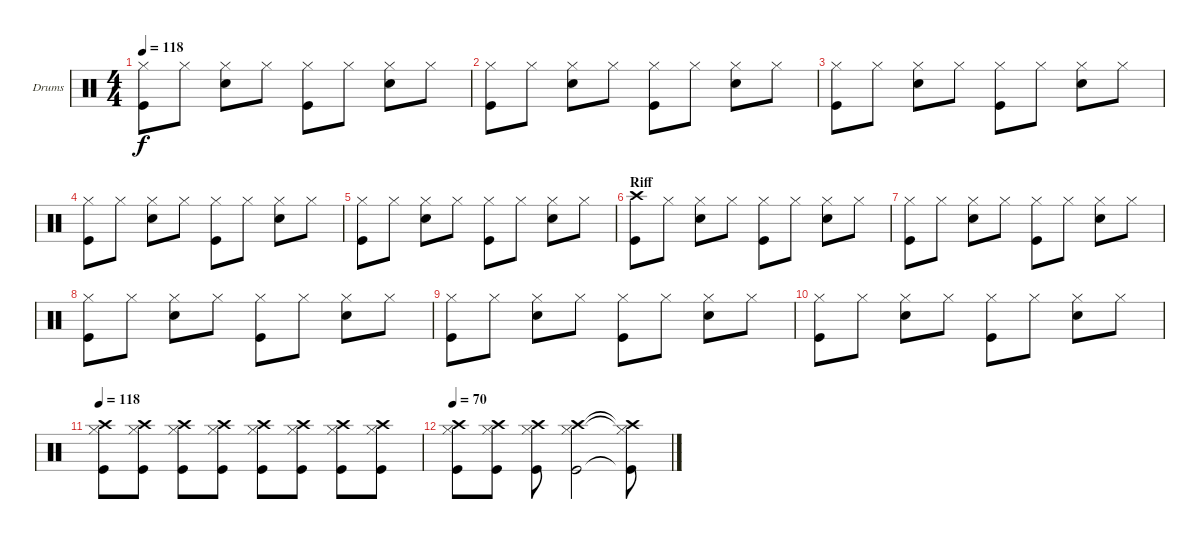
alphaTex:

\bracketExtendMode groupsimilarinstruments
\firstSystemTrackNameOrientation horizontal
\otherSystemsTrackNameOrientation horizontal
\track ("Drumkit" "Drums") {instrument percussion}
\staff {score}
\articulation defaults
\ts (4 4)
\tempo 118
\clef neutral
\scale
0.333333
\ks c
("Hi-Hat (closed)" "Kick (hit)").8{dy f} "Hi-Hat (closed)".8 ("Hi-Hat (closed)" "Snare (hit) 2").8 "Hi-Hat (closed)".8 ("Hi-Hat (closed)" "Kick (hit)").8 "Hi-Hat (closed)".8 ("Hi-Hat (closed)" "Snare (hit) 2").8 "Hi-Hat (closed)".8 |
\scale
0.333333 ("Hi-Hat (closed)" "Kick (hit)").8 "Hi-Hat (closed)".8 ("Hi-Hat (closed)" "Snare (hit) 2").8 "Hi-Hat (closed)".8 ("Hi-Hat (closed)" "Kick (hit)").8 "Hi-Hat (closed)".8 ("Hi-Hat (closed)" "Snare (hit) 2").8 "Hi-Hat (closed)".8 |
\scale
0.333333 ("Hi-Hat (closed)" "Kick (hit)").8 "Hi-Hat (closed)".8 ("Hi-Hat (closed)" "Snare (hit) 2").8 "Hi-Hat (closed)".8 ("Hi-Hat (closed)" "Kick (hit)").8 "Hi-Hat (closed)".8 ("Hi-Hat (closed)" "Snare (hit) 2").8 "Hi-Hat (closed)".8 |
\scale
0.333333 ("Kick (hit)" "Hi-Hat (closed)").8 "Hi-Hat (closed)".8 ("Hi-Hat (closed)" "Snare (hit) 2").8 "Hi-Hat (closed)".8 ("Hi-Hat (closed)" "Kick (hit)").8 "Hi-Hat (closed)".8 ("Hi-Hat (closed)" "Snare (hit) 2").8 "Hi-Hat (closed)".8 |
\scale
0.333333 ("Hi-Hat (closed)" "Kick (hit)").8 "Hi-Hat (closed)".8 ("Hi-Hat (closed)" "Snare (hit) 2").8 "Hi-Hat (closed)".8 ("Hi-Hat (closed)" "Kick (hit)").8 "Hi-Hat (closed)".8 ("Hi-Hat (closed)" "Snare (hit) 2").8 "Hi-Hat (closed)".8 |
\section ("" "Riff")
\scale
0.333333 ("Kick (hit)" "Crash high (hit)").8 "Hi-Hat (closed)".8 ("Hi-Hat (closed)" "Snare (hit) 2").8 "Hi-Hat (closed)".8 ("Hi-Hat (closed)" "Kick (hit)").8 "Hi-Hat (closed)".8 ("Hi-Hat (closed)" "Snare (hit) 2").8 "Hi-Hat (closed)".8 |
\scale
0.333333 ("Hi-Hat (closed)" "Kick (hit)").8 "Hi-Hat (closed)".8 ("Hi-Hat (closed)" "Snare (hit) 2").8 "Hi-Hat (closed)".8 ("Hi-Hat (closed)" "Kick (hit)").8 "Hi-Hat (closed)".8 ("Hi-Hat (closed)" "Snare (hit) 2").8 "Hi-Hat (closed)".8 |
\scale
0.333333 ("Hi-Hat (closed)" "Kick (hit)").8 "Hi-Hat (closed)".8 ("Hi-Hat (closed)" "Snare (hit) 2").8 "Hi-Hat (closed)".8 ("Hi-Hat (closed)" "Kick (hit)").8 "Hi-Hat (closed)".8 ("Hi-Hat (closed)" "Snare (hit) 2").8 "Hi-Hat (closed)".8 |
\scale
0.333333 ("Hi-Hat (closed)" "Kick (hit)").8 "Hi-Hat (closed)".8 ("Hi-Hat (closed)" "Snare (hit) 2").8 "Hi-Hat (closed)".8 ("Hi-Hat (closed)" "Kick (hit)").8 "Hi-Hat (closed)".8 ("Hi-Hat (closed)" "Snare (hit) 2").8 "Hi-Hat (closed)".8 |
\scale
0.333333 ("Hi-Hat (closed)" "Kick (hit)").8 "Hi-Hat (closed)".8 ("Hi-Hat (closed)" "Snare (hit) 2").8 "Hi-Hat (closed)".8 ("Hi-Hat (closed)" "Kick (hit)").8 "Hi-Hat (closed)".8 ("Hi-Hat (closed)" "Snare (hit) 2").8 "Hi-Hat (closed)".8 |
\tempo 118
("Hi-Hat (closed)" "Kick (hit)" "Crash high (hit)").8 ("Hi-Hat (closed)" "Kick (hit)" "Crash high (hit)").8 ("Hi-Hat (closed)" "Kick (hit)" "Crash high (hit)").8 ("Hi-Hat (closed)" "Kick (hit)" "Crash high (hit)").8 ("Hi-Hat (closed)" "Kick (hit)" "Crash high (hit)").8 ("Hi-Hat (closed)" "Kick (hit)" "Crash high (hit)").8 ("Hi-Hat (closed)" "Kick (hit)" "Crash high (hit)").8 ("Hi-Hat (closed)" "Kick (hit)" "Crash high (hit)").8 |
\tempo 70
("Hi-Hat (closed)" "Kick (hit)" "Crash high (hit)").8 ("Hi-Hat (closed)" "Kick (hit)" "Crash high (hit)").8 ("Hi-Hat (closed)" "Kick (hit)" "Crash high (hit)").8 ("Hi-Hat (closed)" "Kick (hit)" "Crash high (hit)").2 ("Hi-Hat (closed)"{t} "Kick (hit)"{t} "Crash high (hit)"{t}).8
